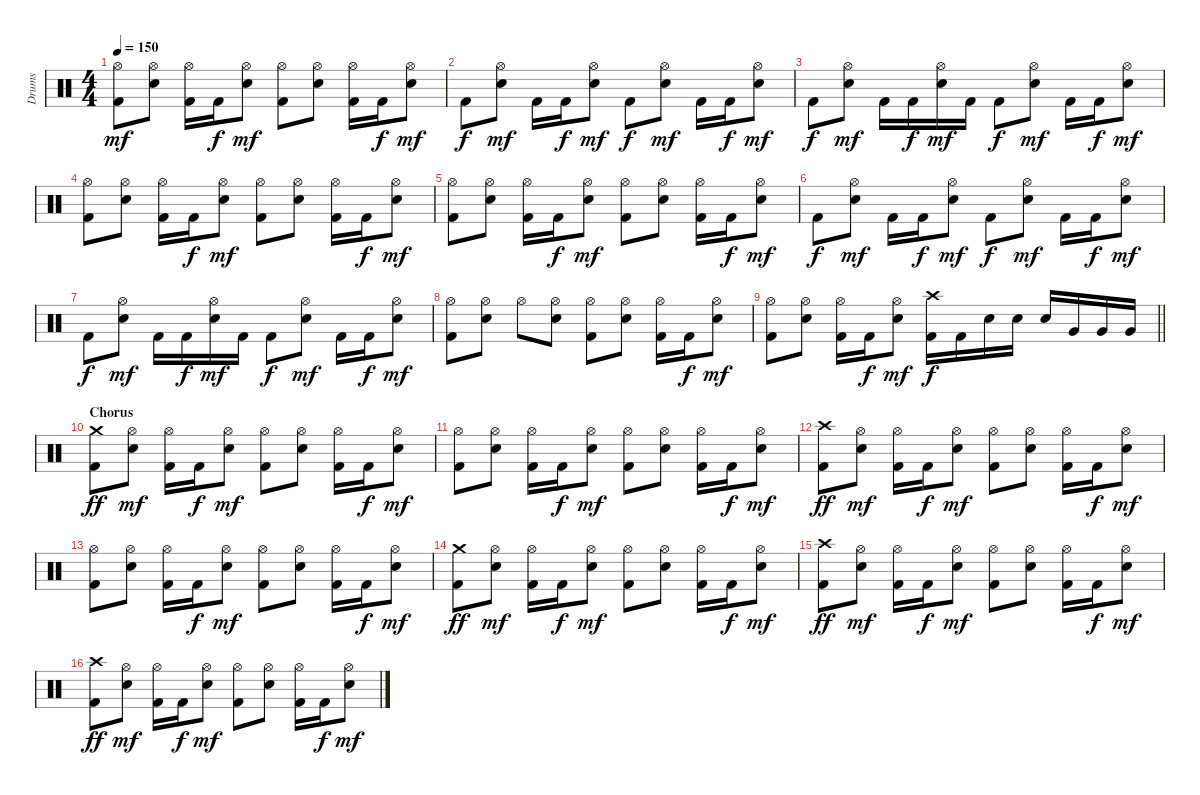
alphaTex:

\track ("Drums" "Drums") {instrument percussion}
\staff {score}
\articulation defaults
\ts (4 4)
\tempo 150
\clef neutral
\ks c
("Hi-Hat (open)" "Kick (hit) 2").8{dy mf} ("Hi-Hat (open)" "Electric Snare (hit)").8 ("Hi-Hat (open)" "Kick (hit) 2").16 "Kick (hit) 2".16{dy f} ("Hi-Hat (open)" "Electric Snare (hit)").8{dy mf} ("Hi-Hat (open)" "Kick (hit) 2").8 ("Hi-Hat (open)" "Electric Snare (hit)").8 ("Hi-Hat (open)" "Kick (hit) 2").16 "Kick (hit) 2".16{dy f} ("Hi-Hat (open)" "Electric Snare (hit)").8{dy mf} |
"Kick (hit) 2".8{dy f} ("Hi-Hat (open)" "Electric Snare (hit)").8{dy mf} "Kick (hit) 2".16 "Kick (hit) 2".16{dy f} ("Hi-Hat (open)" "Electric Snare (hit)").8{dy mf} "Kick (hit) 2".8{dy f} ("Hi-Hat (open)" "Electric Snare (hit)").8{dy mf} "Kick (hit) 2".16 "Kick (hit) 2".16{dy f} ("Hi-Hat (open)" "Electric Snare (hit)").8{dy mf} |
"Kick (hit) 2".8{dy f} ("Hi-Hat (open)" "Electric Snare (hit)").8{dy mf} "Kick (hit) 2".16 "Kick (hit) 2".16{dy f} ("Hi-Hat (open)" "Electric Snare (hit)").16{dy mf} "Kick (hit) 2".16 "Kick (hit) 2".8{dy f} ("Hi-Hat (open)" "Electric Snare (hit)").8{dy mf} "Kick (hit) 2".16 "Kick (hit) 2".16{dy f} ("Hi-Hat (open)" "Electric Snare (hit)").8{dy mf} |
("Hi-Hat (open)" "Kick (hit) 2").8 ("Hi-Hat (open)" "Electric Snare (hit)").8 ("Hi-Hat (open)" "Kick (hit) 2").16 "Kick (hit) 2".16{dy f} ("Hi-Hat (open)" "Electric Snare (hit)").8{dy mf} ("Hi-Hat (open)" "Kick (hit) 2").8 ("Hi-Hat (open)" "Electric Snare (hit)").8 ("Hi-Hat (open)" "Kick (hit) 2").16 "Kick (hit) 2".16{dy f} ("Hi-Hat (open)" "Electric Snare (hit)").8{dy mf} |
("Hi-Hat (open)" "Kick (hit) 2").8 ("Hi-Hat (open)" "Electric Snare (hit)").8 ("Hi-Hat (open)" "Kick (hit) 2").16 "Kick (hit) 2".16{dy f} ("Hi-Hat (open)" "Electric Snare (hit)").8{dy mf} ("Hi-Hat (open)" "Kick (hit) 2").8 ("Hi-Hat (open)" "Electric Snare (hit)").8 ("Hi-Hat (open)" "Kick (hit) 2").16 "Kick (hit) 2".16{dy f} ("Hi-Hat (open)" "Electric Snare (hit)").8{dy mf} |
"Kick (hit) 2".8{dy f} ("Hi-Hat (open)" "Electric Snare (hit)").8{dy mf} "Kick (hit) 2".16 "Kick (hit) 2".16{dy f} ("Hi-Hat (open)" "Electric Snare (hit)").8{dy mf} "Kick (hit) 2".8{dy f} ("Hi-Hat (open)" "Electric Snare (hit)").8{dy mf} "Kick (hit) 2".16 "Kick (hit) 2".16{dy f} ("Hi-Hat (open)" "Electric Snare (hit)").8{dy mf} |
"Kick (hit) 2".8{dy f} ("Hi-Hat (open)" "Electric Snare (hit)").8{dy mf} "Kick (hit) 2".16 "Kick (hit) 2".16{dy f} ("Hi-Hat (open)" "Electric Snare (hit)").16{dy mf} "Kick (hit) 2".16 "Kick (hit) 2".8{dy f} ("Hi-Hat (open)" "Electric Snare (hit)").8{dy mf} "Kick (hit) 2".16 "Kick (hit) 2".16{dy f} ("Hi-Hat (open)" "Electric Snare (hit)").8{dy mf} |
("Hi-Hat (open)" "Kick (hit) 2").8 ("Hi-Hat (open)" "Electric Snare (hit)").8 "Hi-Hat (open)".8 ("Hi-Hat (open)" "Electric Snare (hit)").8 ("Hi-Hat (open)" "Kick (hit) 2").8 ("Hi-Hat (open)" "Electric Snare (hit)").8 ("Hi-Hat (open)" "Kick (hit) 2").16 "Kick (hit) 2".16{dy f} ("Hi-Hat (open)" "Electric Snare (hit)").8{dy mf} |
\barLineRight lightlight
("Hi-Hat (open)" "Kick (hit) 2").8 ("Hi-Hat (open)" "Electric Snare (hit)").8 ("Hi-Hat (open)" "Kick (hit) 2").16 "Kick (hit) 2".16{dy f} ("Hi-Hat (open)" "Electric Snare (hit)").8{dy mf} ("Crash high (hit)" "Kick (hit) 2").16{dy f} "Kick (hit) 2".16 "Electric Snare (hit)".16 "Electric Snare (hit)".16 "Electric Snare (hit)".16 "Very Low Tom (hit)".16 "Very Low Tom (hit)".16 "Very Low Tom (hit)".16 |
\section ("" "Chorus")
("Crash medium (hit)" "Kick (hit) 2").8{dy ff} ("Hi-Hat (open)" "Electric Snare (hit)").8{dy mf} ("Hi-Hat (open)" "Kick (hit) 2").16 "Kick (hit) 2".16{dy f} ("Hi-Hat (open)" "Electric Snare (hit)").8{dy mf} ("Hi-Hat (open)" "Kick (hit) 2").8 ("Hi-Hat (open)" "Electric Snare (hit)").8 ("Hi-Hat (open)" "Kick (hit) 2").16 "Kick (hit) 2".16{dy f} ("Hi-Hat (open)" "Electric Snare (hit)").8{dy mf} |
("Hi-Hat (open)" "Kick (hit) 2").8 ("Hi-Hat (open)" "Electric Snare (hit)").8 ("Hi-Hat (open)" "Kick (hit) 2").16 "Kick (hit) 2".16{dy f} ("Hi-Hat (open)" "Electric Snare (hit)").8{dy mf} ("Hi-Hat (open)" "Kick (hit) 2").8 ("Hi-Hat (open)" "Electric Snare (hit)").8 ("Hi-Hat (open)" "Kick (hit) 2").16 "Kick (hit) 2".16{dy f} ("Hi-Hat (open)" "Electric Snare (hit)").8{dy mf} |
("Crash high (hit)" "Kick (hit) 2").8{dy ff} ("Hi-Hat (open)" "Electric Snare (hit)").8{dy mf} ("Hi-Hat (open)" "Kick (hit) 2").16 "Kick (hit) 2".16{dy f} ("Hi-Hat (open)" "Electric Snare (hit)").8{dy mf} ("Hi-Hat (open)" "Kick (hit) 2").8 ("Hi-Hat (open)" "Electric Snare (hit)").8 ("Hi-Hat (open)" "Kick (hit) 2").16 "Kick (hit) 2".16{dy f} ("Hi-Hat (open)" "Electric Snare (hit)").8{dy mf} |
("Hi-Hat (open)" "Kick (hit) 2").8 ("Hi-Hat (open)" "Electric Snare (hit)").8 ("Hi-Hat (open)" "Kick (hit) 2").16 "Kick (hit) 2".16{dy f} ("Hi-Hat (open)" "Electric Snare (hit)").8{dy mf} ("Hi-Hat (open)" "Kick (hit) 2").8 ("Hi-Hat (open)" "Electric Snare (hit)").8 ("Hi-Hat (open)" "Kick (hit) 2").16 "Kick (hit) 2".16{dy f} ("Hi-Hat (open)" "Electric Snare (hit)").8{dy mf} |
("Crash medium (hit)" "Kick (hit) 2").8{dy ff} ("Hi-Hat (open)" "Electric Snare (hit)").8{dy mf} ("Hi-Hat (open)" "Kick (hit) 2").16 "Kick (hit) 2".16{dy f} ("Hi-Hat (open)" "Electric Snare (hit)").8{dy mf} ("Hi-Hat (open)" "Kick (hit) 2").8 ("Hi-Hat (open)" "Electric Snare (hit)").8 ("Hi-Hat (open)" "Kick (hit) 2").16 "Kick (hit) 2".16{dy f} ("Hi-Hat (open)" "Electric Snare (hit)").8{dy mf} |
("Crash high (hit)" "Kick (hit) 2").8{dy ff} ("Hi-Hat (open)" "Electric Snare (hit)").8{dy mf} ("Hi-Hat (open)" "Kick (hit) 2").16 "Kick (hit) 2".16{dy f} ("Hi-Hat (open)" "Electric Snare (hit)").8{dy mf} ("Hi-Hat (open)" "Kick (hit) 2").8 ("Hi-Hat (open)" "Electric Snare (hit)").8 ("Hi-Hat (open)" "Kick (hit) 2").16 "Kick (hit) 2".16{dy f} ("Hi-Hat (open)" "Electric Snare (hit)").8{dy mf} |
("Crash high (hit)" "Kick (hit) 2").8{dy ff} ("Hi-Hat (open)" "Electric Snare (hit)").8{dy mf} ("Hi-Hat (open)" "Kick (hit) 2").16 "Kick (hit) 2".16{dy f} ("Hi-Hat (open)" "Electric Snare (hit)").8{dy mf} ("Hi-Hat (open)" "Kick (hit) 2").8 ("Hi-Hat (open)" "Electric Snare (hit)").8 ("Hi-Hat (open)" "Kick (hit) 2").16 "Kick (hit) 2".16{dy f} ("Hi-Hat (open)" "Electric Snare (hit)").8{dy mf}
